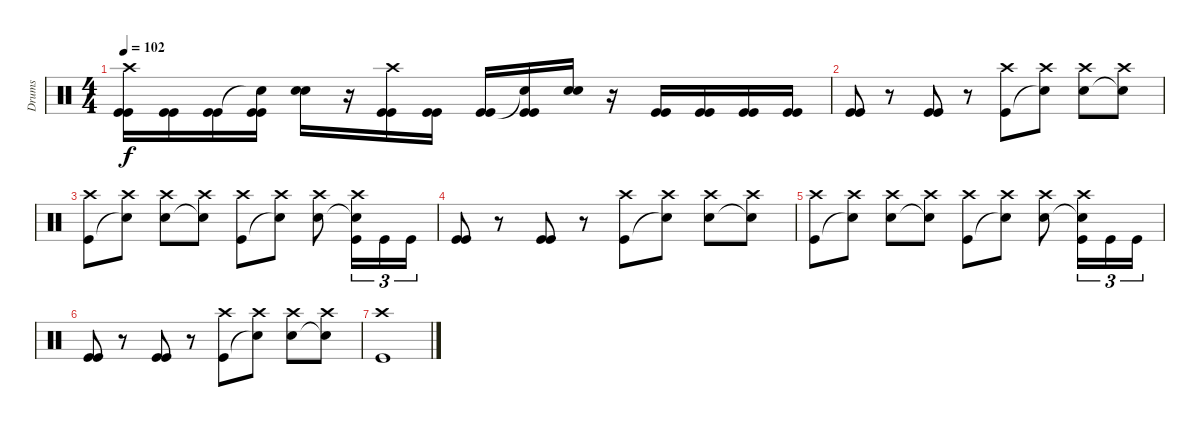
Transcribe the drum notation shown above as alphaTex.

\track ("Drums" "Drums") {instrument percussion}
\staff {score}
\articulation defaults
\ts (4 4)
\tempo 102
\clef neutral
\ks c
("Crash high (hit)" "Kick (hit)" "Kick (hit)").16{dy f} ("Kick (hit)" "Kick (hit)").16 ("Kick (hit)" "Kick (hit)").16 ("Snare (hit)"{t} "Kick (hit)" "Kick (hit)").16 ("Snare (hit) 2" "Snare (hit) 2").16 r.16 ("Crash high (hit)" "Kick (hit)" "Kick (hit)").16 ("Kick (hit)" "Kick (hit)").16 ("Kick (hit)" "Kick (hit)").16 ("Snare (hit)"{t} "Kick (hit)" "Kick (hit)").16 ("Snare (hit) 2" "Snare (hit) 2").16 r.16 ("Kick (hit)" "Kick (hit)").16 ("Kick (hit)" "Kick (hit)").16 ("Kick (hit)" "Kick (hit)").16 ("Kick (hit)" "Kick (hit)").16 |
("Kick (hit)" "Kick (hit)").8 r.8 ("Kick (hit)" "Kick (hit)").8 r.8 ("Crash high (hit)" "Kick (hit)").8 ("Crash high (hit)" "Snare (hit)"{t}).8 ("Crash high (hit)" "Snare (hit) 2").8 ("Crash high (hit)" "Snare (hit)"{t}).8 |
("Crash high (hit)" "Kick (hit)").8 ("Crash high (hit)" "Snare (hit)"{t}).8 ("Crash high (hit)" "Snare (hit) 2").8 ("Crash high (hit)" "Snare (hit)"{t}).8 ("Crash high (hit)" "Kick (hit)").8 ("Crash high (hit)" "Snare (hit)"{t}).8 ("Crash high (hit)" "Snare (hit) 2").8 ("Crash high (hit)" "Snare (hit)"{t} "Kick (hit)").16{tu (3 2)} "Kick (hit)".16{tu (3 2)} "Kick (hit)".16{tu (3 2)} |
("Kick (hit)" "Kick (hit)").8 r.8 ("Kick (hit)" "Kick (hit)").8 r.8 ("Crash high (hit)" "Kick (hit)").8 ("Crash high (hit)" "Snare (hit)"{t}).8 ("Crash high (hit)" "Snare (hit) 2").8 ("Crash high (hit)" "Snare (hit)"{t}).8 |
("Crash high (hit)" "Kick (hit)").8 ("Crash high (hit)" "Snare (hit)"{t}).8 ("Crash high (hit)" "Snare (hit) 2").8 ("Crash high (hit)" "Snare (hit)"{t}).8 ("Crash high (hit)" "Kick (hit)").8 ("Crash high (hit)" "Snare (hit)"{t}).8 ("Crash high (hit)" "Snare (hit) 2").8 ("Crash high (hit)" "Snare (hit)"{t} "Kick (hit)").16{tu (3 2)} "Kick (hit)".16{tu (3 2)} "Kick (hit)".16{tu (3 2)} |
("Kick (hit)" "Kick (hit)").8 r.8 ("Kick (hit)" "Kick (hit)").8 r.8 ("Crash high (hit)" "Kick (hit)").8 ("Crash high (hit)" "Snare (hit)"{t}).8 ("Crash high (hit)" "Snare (hit) 2").8 ("Crash high (hit)" "Snare (hit)"{t}).8 |
("Crash high (hit)" "Kick (hit)").1
